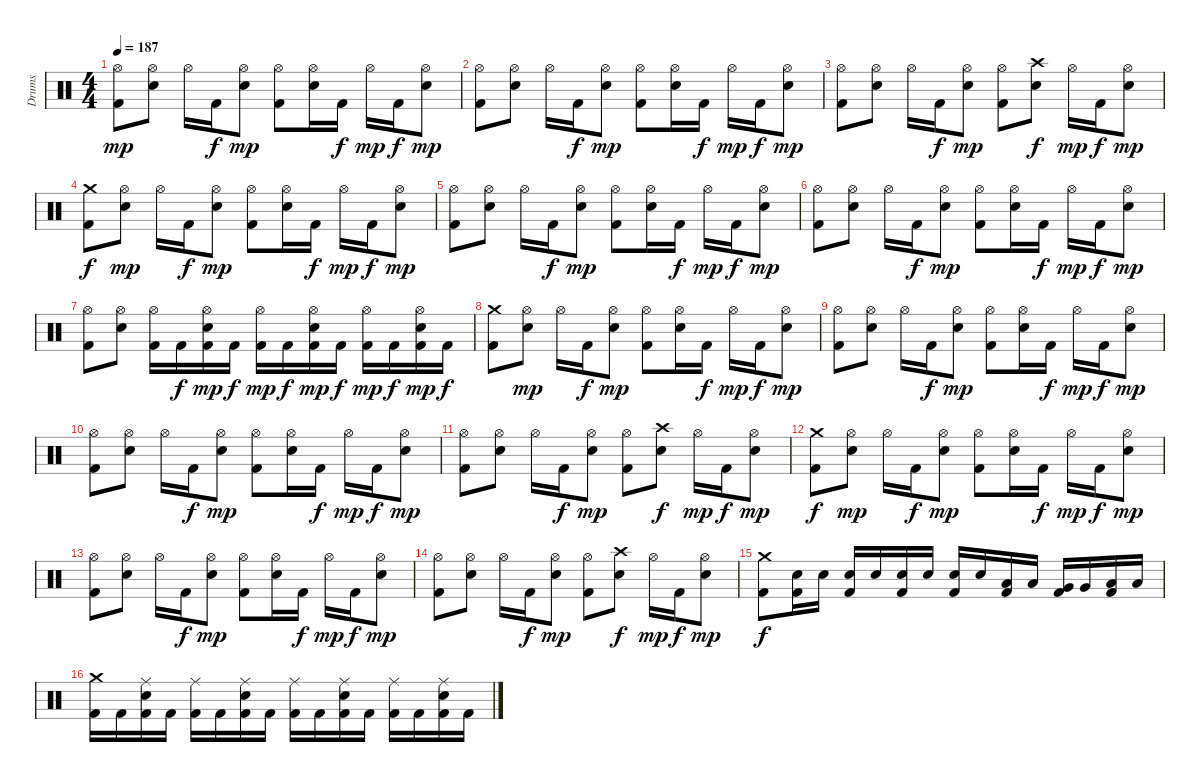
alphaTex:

\track ("Drums" "Drums") {instrument percussion}
\staff {score}
\articulation defaults
\ts (4 4)
\tempo 187
\clef neutral
\ks c
("Hi-Hat (open)" "Kick (hit) 2").8{dy mp} ("Hi-Hat (open)" "Snare (hit) 2").8 "Hi-Hat (open)".16 "Kick (hit) 2".16{dy f} ("Hi-Hat (open)" "Snare (hit) 2").8{dy mp} ("Hi-Hat (open)" "Kick (hit) 2").8 ("Hi-Hat (open)" "Snare (hit) 2").16 "Kick (hit) 2".16{dy f} "Hi-Hat (open)".16{dy mp} "Kick (hit) 2".16{dy f} ("Hi-Hat (open)" "Snare (hit) 2").8{dy mp} |
("Hi-Hat (open)" "Kick (hit) 2").8 ("Hi-Hat (open)" "Snare (hit) 2").8 "Hi-Hat (open)".16 "Kick (hit) 2".16{dy f} ("Hi-Hat (open)" "Snare (hit) 2").8{dy mp} ("Hi-Hat (open)" "Kick (hit) 2").8 ("Hi-Hat (open)" "Snare (hit) 2").16 "Kick (hit) 2".16{dy f} "Hi-Hat (open)".16{dy mp} "Kick (hit) 2".16{dy f} ("Hi-Hat (open)" "Snare (hit) 2").8{dy mp} |
("Hi-Hat (open)" "Kick (hit) 2").8 ("Hi-Hat (open)" "Snare (hit) 2").8 "Hi-Hat (open)".16 "Kick (hit) 2".16{dy f} ("Hi-Hat (open)" "Snare (hit) 2").8{dy mp} ("Hi-Hat (open)" "Kick (hit) 2").8 ("Crash high (hit)" "Snare (hit) 2").8{dy f} "Hi-Hat (open)".16{dy mp} "Kick (hit) 2".16{dy f} ("Hi-Hat (open)" "Snare (hit) 2").8{dy mp} |
("Crash medium (hit)" "Kick (hit) 2").8{dy f} ("Hi-Hat (open)" "Snare (hit) 2").8{dy mp} "Hi-Hat (open)".16 "Kick (hit) 2".16{dy f} ("Hi-Hat (open)" "Snare (hit) 2").8{dy mp} ("Hi-Hat (open)" "Kick (hit) 2").8 ("Hi-Hat (open)" "Snare (hit) 2").16 "Kick (hit) 2".16{dy f} "Hi-Hat (open)".16{dy mp} "Kick (hit) 2".16{dy f} ("Hi-Hat (open)" "Snare (hit) 2").8{dy mp} |
("Hi-Hat (open)" "Kick (hit) 2").8 ("Hi-Hat (open)" "Snare (hit) 2").8 "Hi-Hat (open)".16 "Kick (hit) 2".16{dy f} ("Hi-Hat (open)" "Snare (hit) 2").8{dy mp} ("Hi-Hat (open)" "Kick (hit) 2").8 ("Hi-Hat (open)" "Snare (hit) 2").16 "Kick (hit) 2".16{dy f} "Hi-Hat (open)".16{dy mp} "Kick (hit) 2".16{dy f} ("Hi-Hat (open)" "Snare (hit) 2").8{dy mp} |
("Hi-Hat (open)" "Kick (hit) 2").8 ("Hi-Hat (open)" "Snare (hit) 2").8 "Hi-Hat (open)".16 "Kick (hit) 2".16{dy f} ("Hi-Hat (open)" "Snare (hit) 2").8{dy mp} ("Hi-Hat (open)" "Kick (hit) 2").8 ("Hi-Hat (open)" "Snare (hit) 2").16 "Kick (hit) 2".16{dy f} "Hi-Hat (open)".16{dy mp} "Kick (hit) 2".16{dy f} ("Hi-Hat (open)" "Snare (hit) 2").8{dy mp} |
("Hi-Hat (open)" "Kick (hit) 2").8 ("Hi-Hat (open)" "Snare (hit) 2").8 ("Hi-Hat (open)" "Kick (hit) 2").16 "Kick (hit) 2".16{dy f} ("Hi-Hat (open)" "Snare (hit) 2" "Kick (hit) 2").16{dy mp} "Kick (hit) 2".16{dy f} ("Hi-Hat (open)" "Kick (hit) 2").16{dy mp} "Kick (hit) 2".16{dy f} ("Hi-Hat (open)" "Snare (hit) 2" "Kick (hit) 2").16{dy mp} "Kick (hit) 2".16{dy f} ("Hi-Hat (open)" "Kick (hit) 2").16{dy mp} "Kick (hit) 2".16{dy f} ("Hi-Hat (open)" "Snare (hit) 2" "Kick (hit) 2").16{dy mp} "Kick (hit) 2".16{dy f} |
("Crash medium (hit)" "Kick (hit) 2").8 ("Hi-Hat (open)" "Snare (hit) 2").8{dy mp} "Hi-Hat (open)".16 "Kick (hit) 2".16{dy f} ("Hi-Hat (open)" "Snare (hit) 2").8{dy mp} ("Hi-Hat (open)" "Kick (hit) 2").8 ("Hi-Hat (open)" "Snare (hit) 2").16 "Kick (hit) 2".16{dy f} "Hi-Hat (open)".16{dy mp} "Kick (hit) 2".16{dy f} ("Hi-Hat (open)" "Snare (hit) 2").8{dy mp} |
("Hi-Hat (open)" "Kick (hit) 2").8 ("Hi-Hat (open)" "Snare (hit) 2").8 "Hi-Hat (open)".16 "Kick (hit) 2".16{dy f} ("Hi-Hat (open)" "Snare (hit) 2").8{dy mp} ("Hi-Hat (open)" "Kick (hit) 2").8 ("Hi-Hat (open)" "Snare (hit) 2").16 "Kick (hit) 2".16{dy f} "Hi-Hat (open)".16{dy mp} "Kick (hit) 2".16{dy f} ("Hi-Hat (open)" "Snare (hit) 2").8{dy mp} |
("Hi-Hat (open)" "Kick (hit) 2").8 ("Hi-Hat (open)" "Snare (hit) 2").8 "Hi-Hat (open)".16 "Kick (hit) 2".16{dy f} ("Hi-Hat (open)" "Snare (hit) 2").8{dy mp} ("Hi-Hat (open)" "Kick (hit) 2").8 ("Hi-Hat (open)" "Snare (hit) 2").16 "Kick (hit) 2".16{dy f} "Hi-Hat (open)".16{dy mp} "Kick (hit) 2".16{dy f} ("Hi-Hat (open)" "Snare (hit) 2").8{dy mp} |
("Hi-Hat (open)" "Kick (hit) 2").8 ("Hi-Hat (open)" "Snare (hit) 2").8 "Hi-Hat (open)".16 "Kick (hit) 2".16{dy f} ("Hi-Hat (open)" "Snare (hit) 2").8{dy mp} ("Hi-Hat (open)" "Kick (hit) 2").8 ("Crash high (hit)" "Snare (hit) 2").8{dy f} "Hi-Hat (open)".16{dy mp} "Kick (hit) 2".16{dy f} ("Hi-Hat (open)" "Snare (hit) 2").8{dy mp} |
("Crash medium (hit)" "Kick (hit) 2").8{dy f} ("Hi-Hat (open)" "Snare (hit) 2").8{dy mp} "Hi-Hat (open)".16 "Kick (hit) 2".16{dy f} ("Hi-Hat (open)" "Snare (hit) 2").8{dy mp} ("Hi-Hat (open)" "Kick (hit) 2").8 ("Hi-Hat (open)" "Snare (hit) 2").16 "Kick (hit) 2".16{dy f} "Hi-Hat (open)".16{dy mp} "Kick (hit) 2".16{dy f} ("Hi-Hat (open)" "Snare (hit) 2").8{dy mp} |
("Hi-Hat (open)" "Kick (hit) 2").8 ("Hi-Hat (open)" "Snare (hit) 2").8 "Hi-Hat (open)".16 "Kick (hit) 2".16{dy f} ("Hi-Hat (open)" "Snare (hit) 2").8{dy mp} ("Hi-Hat (open)" "Kick (hit) 2").8 ("Hi-Hat (open)" "Snare (hit) 2").16 "Kick (hit) 2".16{dy f} "Hi-Hat (open)".16{dy mp} "Kick (hit) 2".16{dy f} ("Hi-Hat (open)" "Snare (hit) 2").8{dy mp} |
("Hi-Hat (open)" "Kick (hit) 2").8 ("Hi-Hat (open)" "Snare (hit) 2").8 "Hi-Hat (open)".16 "Kick (hit) 2".16{dy f} ("Hi-Hat (open)" "Snare (hit) 2").8{dy mp} ("Hi-Hat (open)" "Kick (hit) 2").8 ("Crash high (hit)" "Snare (hit) 2").8{dy f} "Hi-Hat (open)".16{dy mp} "Kick (hit) 2".16{dy f} ("Hi-Hat (open)" "Snare (hit) 2").8{dy mp} |
("Crash medium (hit)" "Kick (hit) 2").8{dy f} ("Snare (hit) 2" "Kick (hit) 2").16 "Snare (hit) 2".16 ("Snare (hit) 2" "Kick (hit) 2").16 "Snare (hit) 2".16 ("Snare (hit) 2" "Kick (hit) 2").16 "Snare (hit) 2".16 ("Snare (hit) 2" "Kick (hit) 2").16 "Snare (hit) 2".16 ("Low Tom (hit)" "Kick (hit) 2").16 "Low Tom (hit)".16 ("Very Low Tom (hit)" "Kick (hit) 2").16 "Very Low Tom (hit)".16 ("Low Floor Tom (hit)" "Kick (hit) 2").16 "Low Floor Tom (hit)".16 |
("Crash medium (hit)" "Kick (hit) 2").16 "Kick (hit) 2".16 ("Ride (middle)" "Snare (hit) 2" "Kick (hit) 2").16 "Kick (hit) 2".16 ("Ride (middle)" "Kick (hit) 2").16 "Kick (hit) 2".16 ("Ride (middle)" "Snare (hit) 2" "Kick (hit) 2").16 "Kick (hit) 2".16 ("Ride (middle)" "Kick (hit) 2").16 "Kick (hit) 2".16 ("Ride (middle)" "Snare (hit) 2" "Kick (hit) 2").16 "Kick (hit) 2".16 ("Ride (middle)" "Kick (hit) 2").16 "Kick (hit) 2".16 ("Ride (middle)" "Snare (hit) 2" "Kick (hit) 2").16 "Kick (hit) 2".16
